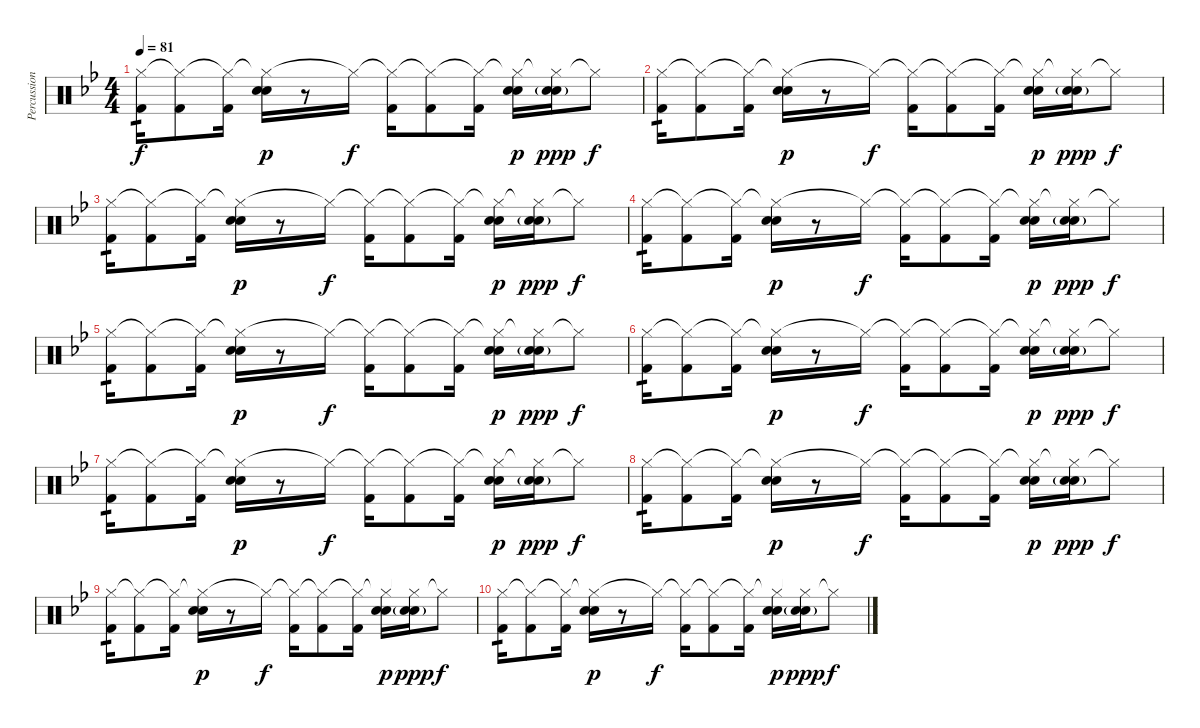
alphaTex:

\track ("Percussion" "Percussion") {instrument percussion}
\staff {score}
\articulation defaults
\ts (4 4)
\tempo 81
\clef neutral
\ks bb
("Hi-Hat (closed)" "Kick (hit) 2").16{tp 1 dy f} ("Hi-Hat (closed)"{t} "Kick (hit) 2").8 ("Hi-Hat (closed)"{t} "Kick (hit) 2").16 ("Hi-Hat (closed)"{t} "Hand Clap (hit)" "Electric Snare (hit)").16{dy p} r.8 "Hi-Hat (closed)"{t}.16{dy f} ("Hi-Hat (closed)"{t} "Kick (hit) 2").16 ("Hi-Hat (closed)"{t} "Kick (hit) 2").8 ("Hi-Hat (closed)"{t} "Kick (hit) 2").16 ("Hi-Hat (closed)"{t} "Hand Clap (hit)" "Electric Snare (hit)").16{dy p} ("Hi-Hat (closed)"{t} "Hand Clap (hit)"{g} "Electric Snare (hit)"{g}).16{dy ppp} "Hi-Hat (closed)"{t}.8{dy f} |
("Hi-Hat (closed)" "Kick (hit) 2").16{tp 1} ("Hi-Hat (closed)"{t} "Kick (hit) 2").8 ("Hi-Hat (closed)"{t} "Kick (hit) 2").16 ("Hi-Hat (closed)"{t} "Hand Clap (hit)" "Electric Snare (hit)").16{dy p} r.8 "Hi-Hat (closed)"{t}.16{dy f} ("Hi-Hat (closed)"{t} "Kick (hit) 2").16 ("Hi-Hat (closed)"{t} "Kick (hit) 2").8 ("Hi-Hat (closed)"{t} "Kick (hit) 2").16 ("Hi-Hat (closed)"{t} "Hand Clap (hit)" "Electric Snare (hit)").16{dy p} ("Hi-Hat (closed)"{t} "Hand Clap (hit)"{g} "Electric Snare (hit)"{g}).16{dy ppp} "Hi-Hat (closed)"{t}.8{dy f} |
("Hi-Hat (closed)" "Kick (hit) 2").16{tp 1} ("Hi-Hat (closed)"{t} "Kick (hit) 2").8 ("Hi-Hat (closed)"{t} "Kick (hit) 2").16 ("Hi-Hat (closed)"{t} "Hand Clap (hit)" "Electric Snare (hit)").16{dy p} r.8 "Hi-Hat (closed)"{t}.16{dy f} ("Hi-Hat (closed)"{t} "Kick (hit) 2").16 ("Hi-Hat (closed)"{t} "Kick (hit) 2").8 ("Hi-Hat (closed)"{t} "Kick (hit) 2").16 ("Hi-Hat (closed)"{t} "Hand Clap (hit)" "Electric Snare (hit)").16{dy p} ("Hi-Hat (closed)"{t} "Hand Clap (hit)"{g} "Electric Snare (hit)"{g}).16{dy ppp} "Hi-Hat (closed)"{t}.8{dy f} |
("Hi-Hat (closed)" "Kick (hit) 2").16{tp 1} ("Hi-Hat (closed)"{t} "Kick (hit) 2").8 ("Hi-Hat (closed)"{t} "Kick (hit) 2").16 ("Hi-Hat (closed)"{t} "Hand Clap (hit)" "Electric Snare (hit)").16{dy p} r.8 "Hi-Hat (closed)"{t}.16{dy f} ("Hi-Hat (closed)"{t} "Kick (hit) 2").16 ("Hi-Hat (closed)"{t} "Kick (hit) 2").8 ("Hi-Hat (closed)"{t} "Kick (hit) 2").16 ("Hi-Hat (closed)"{t} "Hand Clap (hit)" "Electric Snare (hit)").16{dy p} ("Hi-Hat (closed)"{t} "Hand Clap (hit)"{g} "Electric Snare (hit)"{g}).16{dy ppp} "Hi-Hat (closed)"{t}.8{dy f} |
("Hi-Hat (closed)" "Kick (hit) 2").16{tp 1} ("Hi-Hat (closed)"{t} "Kick (hit) 2").8 ("Hi-Hat (closed)"{t} "Kick (hit) 2").16 ("Hi-Hat (closed)"{t} "Hand Clap (hit)" "Electric Snare (hit)").16{dy p} r.8 "Hi-Hat (closed)"{t}.16{dy f} ("Hi-Hat (closed)"{t} "Kick (hit) 2").16 ("Hi-Hat (closed)"{t} "Kick (hit) 2").8 ("Hi-Hat (closed)"{t} "Kick (hit) 2").16 ("Hi-Hat (closed)"{t} "Hand Clap (hit)" "Electric Snare (hit)").16{dy p} ("Hi-Hat (closed)"{t} "Hand Clap (hit)"{g} "Electric Snare (hit)"{g}).16{dy ppp} "Hi-Hat (closed)"{t}.8{dy f} |
("Hi-Hat (closed)" "Kick (hit) 2").16{tp 1} ("Hi-Hat (closed)"{t} "Kick (hit) 2").8 ("Hi-Hat (closed)"{t} "Kick (hit) 2").16 ("Hi-Hat (closed)"{t} "Hand Clap (hit)" "Electric Snare (hit)").16{dy p} r.8 "Hi-Hat (closed)"{t}.16{dy f} ("Hi-Hat (closed)"{t} "Kick (hit) 2").16 ("Hi-Hat (closed)"{t} "Kick (hit) 2").8 ("Hi-Hat (closed)"{t} "Kick (hit) 2").16 ("Hi-Hat (closed)"{t} "Hand Clap (hit)" "Electric Snare (hit)").16{dy p} ("Hi-Hat (closed)"{t} "Hand Clap (hit)"{g} "Electric Snare (hit)"{g}).16{dy ppp} "Hi-Hat (closed)"{t}.8{dy f} |
("Hi-Hat (closed)" "Kick (hit) 2").16{tp 1} ("Hi-Hat (closed)"{t} "Kick (hit) 2").8 ("Hi-Hat (closed)"{t} "Kick (hit) 2").16 ("Hi-Hat (closed)"{t} "Hand Clap (hit)" "Electric Snare (hit)").16{dy p} r.8 "Hi-Hat (closed)"{t}.16{dy f} ("Hi-Hat (closed)"{t} "Kick (hit) 2").16 ("Hi-Hat (closed)"{t} "Kick (hit) 2").8 ("Hi-Hat (closed)"{t} "Kick (hit) 2").16 ("Hi-Hat (closed)"{t} "Hand Clap (hit)" "Electric Snare (hit)").16{dy p} ("Hi-Hat (closed)"{t} "Hand Clap (hit)"{g} "Electric Snare (hit)"{g}).16{dy ppp} "Hi-Hat (closed)"{t}.8{dy f} |
("Hi-Hat (closed)" "Kick (hit) 2").16{tp 1} ("Hi-Hat (closed)"{t} "Kick (hit) 2").8 ("Hi-Hat (closed)"{t} "Kick (hit) 2").16 ("Hi-Hat (closed)"{t} "Hand Clap (hit)" "Electric Snare (hit)").16{dy p} r.8 "Hi-Hat (closed)"{t}.16{dy f} ("Hi-Hat (closed)"{t} "Kick (hit) 2").16 ("Hi-Hat (closed)"{t} "Kick (hit) 2").8 ("Hi-Hat (closed)"{t} "Kick (hit) 2").16 ("Hi-Hat (closed)"{t} "Hand Clap (hit)" "Electric Snare (hit)").16{dy p} ("Hi-Hat (closed)"{t} "Hand Clap (hit)"{g} "Electric Snare (hit)"{g}).16{dy ppp} "Hi-Hat (closed)"{t}.8{dy f} |
("Hi-Hat (closed)" "Kick (hit) 2").16{tp 1} ("Hi-Hat (closed)"{t} "Kick (hit) 2").8 ("Hi-Hat (closed)"{t} "Kick (hit) 2").16 ("Hi-Hat (closed)"{t} "Hand Clap (hit)" "Electric Snare (hit)").16{dy p} r.8 "Hi-Hat (closed)"{t}.16{dy f} ("Hi-Hat (closed)"{t} "Kick (hit) 2").16 ("Hi-Hat (closed)"{t} "Kick (hit) 2").8 ("Hi-Hat (closed)"{t} "Kick (hit) 2").16 ("Hi-Hat (closed)"{t} "Hand Clap (hit)" "Electric Snare (hit)").16{dy p} ("Hi-Hat (closed)"{t} "Hand Clap (hit)"{g} "Electric Snare (hit)"{g}).16{dy ppp} "Hi-Hat (closed)"{t}.8{dy f} |
("Hi-Hat (closed)" "Kick (hit) 2").16{tp 1} ("Hi-Hat (closed)"{t} "Kick (hit) 2").8 ("Hi-Hat (closed)"{t} "Kick (hit) 2").16 ("Hi-Hat (closed)"{t} "Hand Clap (hit)" "Electric Snare (hit)").16{dy p} r.8 "Hi-Hat (closed)"{t}.16{dy f} ("Hi-Hat (closed)"{t} "Kick (hit) 2").16 ("Hi-Hat (closed)"{t} "Kick (hit) 2").8 ("Hi-Hat (closed)"{t} "Kick (hit) 2").16 ("Hi-Hat (closed)"{t} "Hand Clap (hit)" "Electric Snare (hit)").16{dy p} ("Hi-Hat (closed)"{t} "Hand Clap (hit)"{g} "Electric Snare (hit)"{g}).16{dy ppp} "Hi-Hat (closed)"{t}.8{dy f}
